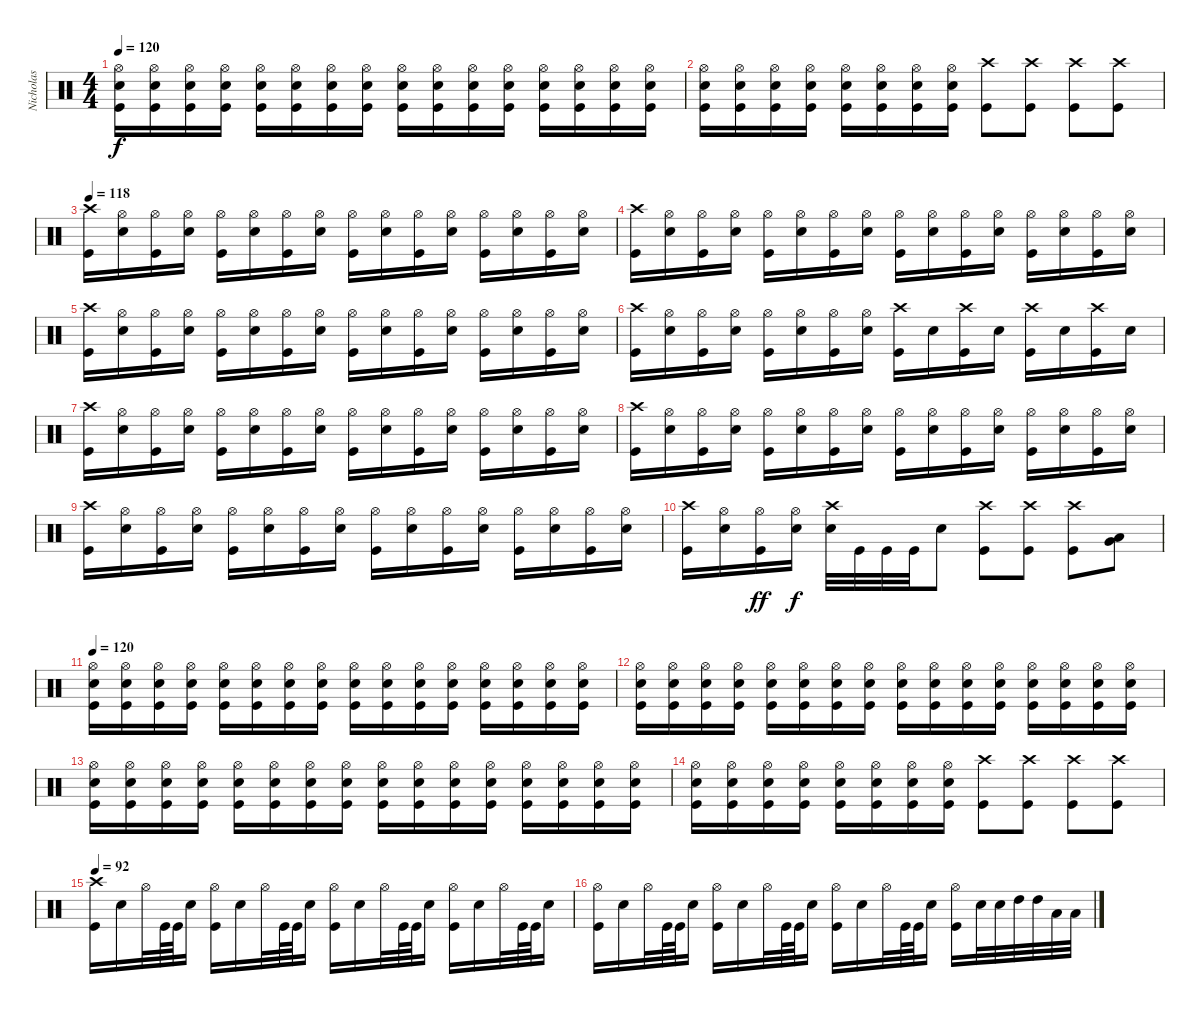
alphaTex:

\track ("Nicholas" "Nicholas") {instrument percussion}
\staff {score}
\articulation defaults
\ts (4 4)
\tempo 120
\clef neutral
\ks c
("Hi-Hat (open)" "Electric Snare (hit)" "Kick (hit)").16{dy f} ("Hi-Hat (open)" "Electric Snare (hit)" "Kick (hit)").16 ("Hi-Hat (open)" "Electric Snare (hit)" "Kick (hit)").16 ("Hi-Hat (open)" "Electric Snare (hit)" "Kick (hit)").16 ("Hi-Hat (open)" "Electric Snare (hit)" "Kick (hit)").16 ("Hi-Hat (open)" "Electric Snare (hit)" "Kick (hit)").16 ("Hi-Hat (open)" "Electric Snare (hit)" "Kick (hit)").16 ("Hi-Hat (open)" "Electric Snare (hit)" "Kick (hit)").16 ("Hi-Hat (open)" "Electric Snare (hit)" "Kick (hit)").16 ("Hi-Hat (open)" "Electric Snare (hit)" "Kick (hit)").16 ("Hi-Hat (open)" "Electric Snare (hit)" "Kick (hit)").16 ("Hi-Hat (open)" "Electric Snare (hit)" "Kick (hit)").16 ("Hi-Hat (open)" "Electric Snare (hit)" "Kick (hit)").16 ("Hi-Hat (open)" "Electric Snare (hit)" "Kick (hit)").16 ("Hi-Hat (open)" "Electric Snare (hit)" "Kick (hit)").16 ("Hi-Hat (open)" "Electric Snare (hit)" "Kick (hit)").16 |
("Hi-Hat (open)" "Electric Snare (hit)" "Kick (hit)").16 ("Hi-Hat (open)" "Electric Snare (hit)" "Kick (hit)").16 ("Hi-Hat (open)" "Electric Snare (hit)" "Kick (hit)").16 ("Hi-Hat (open)" "Electric Snare (hit)" "Kick (hit)").16 ("Hi-Hat (open)" "Electric Snare (hit)" "Kick (hit)").16 ("Hi-Hat (open)" "Electric Snare (hit)" "Kick (hit)").16 ("Hi-Hat (open)" "Electric Snare (hit)" "Kick (hit)").16 ("Hi-Hat (open)" "Electric Snare (hit)" "Kick (hit)").16 ("Crash high (hit)" "Kick (hit)").8 ("Crash high (hit)" "Kick (hit)").8 ("Crash high (hit)" "Kick (hit)").8 ("Crash high (hit)" "Kick (hit)").8 |
\tempo 118
("Crash high (hit)" "Kick (hit)").16 ("Hi-Hat (open)" "Electric Snare (hit)").16 ("Hi-Hat (open)" "Kick (hit)").16 ("Hi-Hat (open)" "Electric Snare (hit)").16 ("Hi-Hat (open)" "Kick (hit)").16 ("Hi-Hat (open)" "Electric Snare (hit)").16 ("Hi-Hat (open)" "Kick (hit)").16 ("Hi-Hat (open)" "Electric Snare (hit)").16 ("Hi-Hat (open)" "Kick (hit)").16 ("Hi-Hat (open)" "Electric Snare (hit)").16 ("Hi-Hat (open)" "Kick (hit)").16 ("Hi-Hat (open)" "Electric Snare (hit)").16 ("Hi-Hat (open)" "Kick (hit)").16 ("Hi-Hat (open)" "Electric Snare (hit)").16 ("Hi-Hat (open)" "Kick (hit)").16 ("Hi-Hat (open)" "Electric Snare (hit)").16 |
("Crash high (hit)" "Kick (hit)").16 ("Hi-Hat (open)" "Electric Snare (hit)").16 ("Hi-Hat (open)" "Kick (hit)").16 ("Hi-Hat (open)" "Electric Snare (hit)").16 ("Hi-Hat (open)" "Kick (hit)").16 ("Hi-Hat (open)" "Electric Snare (hit)").16 ("Hi-Hat (open)" "Kick (hit)").16 ("Hi-Hat (open)" "Electric Snare (hit)").16 ("Hi-Hat (open)" "Kick (hit)").16 ("Hi-Hat (open)" "Electric Snare (hit)").16 ("Hi-Hat (open)" "Kick (hit)").16 ("Hi-Hat (open)" "Electric Snare (hit)").16 ("Hi-Hat (open)" "Kick (hit)").16 ("Hi-Hat (open)" "Electric Snare (hit)").16 ("Hi-Hat (open)" "Kick (hit)").16 ("Hi-Hat (open)" "Electric Snare (hit)").16 |
("Crash high (hit)" "Kick (hit)").16 ("Hi-Hat (open)" "Electric Snare (hit)").16 ("Hi-Hat (open)" "Kick (hit)").16 ("Hi-Hat (open)" "Electric Snare (hit)").16 ("Hi-Hat (open)" "Kick (hit)").16 ("Hi-Hat (open)" "Electric Snare (hit)").16 ("Hi-Hat (open)" "Kick (hit)").16 ("Hi-Hat (open)" "Electric Snare (hit)").16 ("Hi-Hat (open)" "Kick (hit)").16 ("Hi-Hat (open)" "Electric Snare (hit)").16 ("Hi-Hat (open)" "Kick (hit)").16 ("Hi-Hat (open)" "Electric Snare (hit)").16 ("Hi-Hat (open)" "Kick (hit)").16 ("Hi-Hat (open)" "Electric Snare (hit)").16 ("Hi-Hat (open)" "Kick (hit)").16 ("Hi-Hat (open)" "Electric Snare (hit)").16 |
("Crash high (hit)" "Kick (hit)").16 ("Hi-Hat (open)" "Electric Snare (hit)").16 ("Hi-Hat (open)" "Kick (hit)").16 ("Hi-Hat (open)" "Electric Snare (hit)").16 ("Hi-Hat (open)" "Kick (hit)").16 ("Hi-Hat (open)" "Electric Snare (hit)").16 ("Hi-Hat (open)" "Kick (hit)").16 ("Hi-Hat (open)" "Electric Snare (hit)").16 ("Crash high (hit)" "Kick (hit)").16 "Electric Snare (hit)".16 ("Crash high (hit)" "Kick (hit)").16 "Electric Snare (hit)".16 ("Crash high (hit)" "Kick (hit)").16 "Electric Snare (hit)".16 ("Crash high (hit)" "Kick (hit)").16 "Electric Snare (hit)".16 |
("Crash high (hit)" "Kick (hit)").16 ("Hi-Hat (open)" "Electric Snare (hit)").16 ("Hi-Hat (open)" "Kick (hit)").16 ("Hi-Hat (open)" "Electric Snare (hit)").16 ("Hi-Hat (open)" "Kick (hit)").16 ("Hi-Hat (open)" "Electric Snare (hit)").16 ("Hi-Hat (open)" "Kick (hit)").16 ("Hi-Hat (open)" "Electric Snare (hit)").16 ("Hi-Hat (open)" "Kick (hit)").16 ("Hi-Hat (open)" "Electric Snare (hit)").16 ("Hi-Hat (open)" "Kick (hit)").16 ("Hi-Hat (open)" "Electric Snare (hit)").16 ("Hi-Hat (open)" "Kick (hit)").16 ("Hi-Hat (open)" "Electric Snare (hit)").16 ("Hi-Hat (open)" "Kick (hit)").16 ("Hi-Hat (open)" "Electric Snare (hit)").16 |
("Crash high (hit)" "Kick (hit)").16 ("Hi-Hat (open)" "Electric Snare (hit)").16 ("Hi-Hat (open)" "Kick (hit)").16 ("Hi-Hat (open)" "Electric Snare (hit)").16 ("Hi-Hat (open)" "Kick (hit)").16 ("Hi-Hat (open)" "Electric Snare (hit)").16 ("Hi-Hat (open)" "Kick (hit)").16 ("Hi-Hat (open)" "Electric Snare (hit)").16 ("Hi-Hat (open)" "Kick (hit)").16 ("Hi-Hat (open)" "Electric Snare (hit)").16 ("Hi-Hat (open)" "Kick (hit)").16 ("Hi-Hat (open)" "Electric Snare (hit)").16 ("Hi-Hat (open)" "Kick (hit)").16 ("Hi-Hat (open)" "Electric Snare (hit)").16 ("Hi-Hat (open)" "Kick (hit)").16 ("Hi-Hat (open)" "Electric Snare (hit)").16 |
("Crash high (hit)" "Kick (hit)").16 ("Hi-Hat (open)" "Electric Snare (hit)").16 ("Hi-Hat (open)" "Kick (hit)").16 ("Hi-Hat (open)" "Electric Snare (hit)").16 ("Hi-Hat (open)" "Kick (hit)").16 ("Hi-Hat (open)" "Electric Snare (hit)").16 ("Hi-Hat (open)" "Kick (hit)").16 ("Hi-Hat (open)" "Electric Snare (hit)").16 ("Hi-Hat (open)" "Kick (hit)").16 ("Hi-Hat (open)" "Electric Snare (hit)").16 ("Hi-Hat (open)" "Kick (hit)").16 ("Hi-Hat (open)" "Electric Snare (hit)").16 ("Hi-Hat (open)" "Kick (hit)").16 ("Hi-Hat (open)" "Electric Snare (hit)").16 ("Hi-Hat (open)" "Kick (hit)").16 ("Hi-Hat (open)" "Electric Snare (hit)").16 |
("Crash high (hit)" "Kick (hit)").16 ("Hi-Hat (open)" "Electric Snare (hit)").16 ("Hi-Hat (open)" "Kick (hit)").16{dy ff} ("Hi-Hat (open)" "Electric Snare (hit)").16{dy f} ("Crash high (hit)" "Electric Snare (hit)").32 "Kick (hit)".32 "Kick (hit)".32 "Kick (hit)".32 "Electric Snare (hit)".8 ("Crash high (hit)" "Kick (hit)").8 ("Crash high (hit)" "Kick (hit)").8 ("Crash high (hit)" "Kick (hit)").8 ("Low Tom (hit)" "Very Low Tom (hit)").8{bu 60} |
\tempo 120
("Hi-Hat (open)" "Electric Snare (hit)" "Kick (hit)").16 ("Hi-Hat (open)" "Electric Snare (hit)" "Kick (hit)").16 ("Hi-Hat (open)" "Electric Snare (hit)" "Kick (hit)").16 ("Hi-Hat (open)" "Electric Snare (hit)" "Kick (hit)").16 ("Hi-Hat (open)" "Electric Snare (hit)" "Kick (hit)").16 ("Hi-Hat (open)" "Electric Snare (hit)" "Kick (hit)").16 ("Hi-Hat (open)" "Electric Snare (hit)" "Kick (hit)").16 ("Hi-Hat (open)" "Electric Snare (hit)" "Kick (hit)").16 ("Hi-Hat (open)" "Electric Snare (hit)" "Kick (hit)").16 ("Hi-Hat (open)" "Electric Snare (hit)" "Kick (hit)").16 ("Hi-Hat (open)" "Electric Snare (hit)" "Kick (hit)").16 ("Hi-Hat (open)" "Electric Snare (hit)" "Kick (hit)").16 ("Hi-Hat (open)" "Electric Snare (hit)" "Kick (hit)").16 ("Hi-Hat (open)" "Electric Snare (hit)" "Kick (hit)").16 ("Hi-Hat (open)" "Electric Snare (hit)" "Kick (hit)").16 ("Hi-Hat (open)" "Electric Snare (hit)" "Kick (hit)").16 |
("Hi-Hat (open)" "Electric Snare (hit)" "Kick (hit)").16 ("Hi-Hat (open)" "Electric Snare (hit)" "Kick (hit)").16 ("Hi-Hat (open)" "Electric Snare (hit)" "Kick (hit)").16 ("Hi-Hat (open)" "Electric Snare (hit)" "Kick (hit)").16 ("Hi-Hat (open)" "Electric Snare (hit)" "Kick (hit)").16 ("Hi-Hat (open)" "Electric Snare (hit)" "Kick (hit)").16 ("Hi-Hat (open)" "Electric Snare (hit)" "Kick (hit)").16 ("Hi-Hat (open)" "Electric Snare (hit)" "Kick (hit)").16 ("Hi-Hat (open)" "Electric Snare (hit)" "Kick (hit)").16 ("Hi-Hat (open)" "Electric Snare (hit)" "Kick (hit)").16 ("Hi-Hat (open)" "Electric Snare (hit)" "Kick (hit)").16 ("Hi-Hat (open)" "Electric Snare (hit)" "Kick (hit)").16 ("Hi-Hat (open)" "Electric Snare (hit)" "Kick (hit)").16 ("Hi-Hat (open)" "Electric Snare (hit)" "Kick (hit)").16 ("Hi-Hat (open)" "Electric Snare (hit)" "Kick (hit)").16 ("Hi-Hat (open)" "Electric Snare (hit)" "Kick (hit)").16 |
("Hi-Hat (open)" "Electric Snare (hit)" "Kick (hit)").16 ("Hi-Hat (open)" "Electric Snare (hit)" "Kick (hit)").16 ("Hi-Hat (open)" "Electric Snare (hit)" "Kick (hit)").16 ("Hi-Hat (open)" "Electric Snare (hit)" "Kick (hit)").16 ("Hi-Hat (open)" "Electric Snare (hit)" "Kick (hit)").16 ("Hi-Hat (open)" "Electric Snare (hit)" "Kick (hit)").16 ("Hi-Hat (open)" "Electric Snare (hit)" "Kick (hit)").16 ("Hi-Hat (open)" "Electric Snare (hit)" "Kick (hit)").16 ("Hi-Hat (open)" "Electric Snare (hit)" "Kick (hit)").16 ("Hi-Hat (open)" "Electric Snare (hit)" "Kick (hit)").16 ("Hi-Hat (open)" "Electric Snare (hit)" "Kick (hit)").16 ("Hi-Hat (open)" "Electric Snare (hit)" "Kick (hit)").16 ("Hi-Hat (open)" "Electric Snare (hit)" "Kick (hit)").16 ("Hi-Hat (open)" "Electric Snare (hit)" "Kick (hit)").16 ("Hi-Hat (open)" "Electric Snare (hit)" "Kick (hit)").16 ("Hi-Hat (open)" "Electric Snare (hit)" "Kick (hit)").16 |
("Hi-Hat (open)" "Electric Snare (hit)" "Kick (hit)").16 ("Hi-Hat (open)" "Electric Snare (hit)" "Kick (hit)").16 ("Hi-Hat (open)" "Electric Snare (hit)" "Kick (hit)").16 ("Hi-Hat (open)" "Electric Snare (hit)" "Kick (hit)").16 ("Hi-Hat (open)" "Electric Snare (hit)" "Kick (hit)").16 ("Hi-Hat (open)" "Electric Snare (hit)" "Kick (hit)").16 ("Hi-Hat (open)" "Electric Snare (hit)" "Kick (hit)").16 ("Hi-Hat (open)" "Electric Snare (hit)" "Kick (hit)").16 ("Crash high (hit)" "Kick (hit)").8 ("Crash high (hit)" "Kick (hit)").8 ("Crash high (hit)" "Kick (hit)").8 ("Crash high (hit)" "Kick (hit)").8 |
\tempo 92
("Crash high (hit)" "Kick (hit)").16 "Electric Snare (hit)".16 "Hi-Hat (open)".32 "Kick (hit)".64 "Kick (hit)".64 "Electric Snare (hit)".16 ("Hi-Hat (open)" "Kick (hit)").16 "Electric Snare (hit)".16 "Hi-Hat (open)".32 "Kick (hit)".64 "Kick (hit)".64 "Electric Snare (hit)".16 ("Hi-Hat (open)" "Kick (hit)").16 "Electric Snare (hit)".16 "Hi-Hat (open)".32 "Kick (hit)".64 "Kick (hit)".64 "Electric Snare (hit)".16 ("Hi-Hat (open)" "Kick (hit)").16 "Electric Snare (hit)".16 "Hi-Hat (open)".32 "Kick (hit)".64 "Kick (hit)".64 "Electric Snare (hit)".16 |
("Hi-Hat (open)" "Kick (hit)").16 "Electric Snare (hit)".16 "Hi-Hat (open)".32 "Kick (hit)".64 "Kick (hit)".64 "Electric Snare (hit)".16 ("Hi-Hat (open)" "Kick (hit)").16 "Electric Snare (hit)".16 "Hi-Hat (open)".32 "Kick (hit)".64 "Kick (hit)".64 "Electric Snare (hit)".16 ("Hi-Hat (open)" "Kick (hit)").16 "Electric Snare (hit)".16 "Hi-Hat (open)".32 "Kick (hit)".64 "Kick (hit)".64 "Electric Snare (hit)".16 ("Hi-Hat (open)" "Kick (hit)").16 "Electric Snare (hit)".32 "Electric Snare (hit)".32 "High Tom (hit)".32 "High Tom (hit)".32 "Low Tom (hit)".32 "Low Tom (hit)".32
